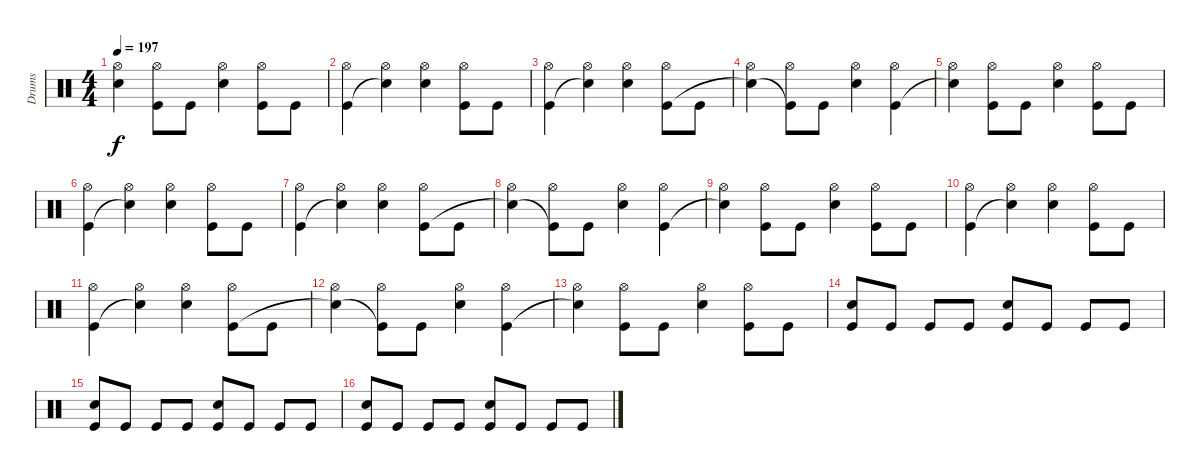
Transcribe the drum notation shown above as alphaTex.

\track ("Drums" "Drums") {instrument percussion}
\staff {score}
\articulation defaults
\ts (4 4)
\tempo 197
\clef neutral
\ks c
("Hi-Hat (open)" "Snare (hit)"{t}).4{dy f} ("Hi-Hat (open)" "Kick (hit)").8 "Kick (hit)".8 ("Hi-Hat (open)" "Snare (hit) 2").4 ("Hi-Hat (open)" "Kick (hit)").8 "Kick (hit)".8 |
("Hi-Hat (open)" "Kick (hit)").4 ("Hi-Hat (open)" "Snare (hit)"{t}).4 ("Hi-Hat (open)" "Snare (hit) 2").4 ("Hi-Hat (open)" "Kick (hit)").8 "Kick (hit)".8 |
("Hi-Hat (open)" "Kick (hit)").4 ("Hi-Hat (open)" "Snare (hit)"{t}).4 ("Hi-Hat (open)" "Snare (hit) 2").4 ("Hi-Hat (open)" "Kick (hit)").8 "Kick (hit)".8 |
("Hi-Hat (open)" "Snare (hit)"{t}).4 ("Hi-Hat (open)" "Kick (hit)"{t}).8 "Kick (hit)".8 ("Hi-Hat (open)" "Snare (hit) 2").4 ("Hi-Hat (open)" "Kick (hit)").4 |
("Hi-Hat (open)" "Snare (hit)"{t}).4 ("Hi-Hat (open)" "Kick (hit)").8 "Kick (hit)".8 ("Hi-Hat (open)" "Snare (hit) 2").4 ("Hi-Hat (open)" "Kick (hit)").8 "Kick (hit)".8 |
("Hi-Hat (open)" "Kick (hit)").4 ("Hi-Hat (open)" "Snare (hit)"{t}).4 ("Hi-Hat (open)" "Snare (hit) 2").4 ("Hi-Hat (open)" "Kick (hit)").8 "Kick (hit)".8 |
("Hi-Hat (open)" "Kick (hit)").4 ("Hi-Hat (open)" "Snare (hit)"{t}).4 ("Hi-Hat (open)" "Snare (hit) 2").4 ("Hi-Hat (open)" "Kick (hit)").8 "Kick (hit)".8 |
("Hi-Hat (open)" "Snare (hit)"{t}).4 ("Hi-Hat (open)" "Kick (hit)"{t}).8 "Kick (hit)".8 ("Hi-Hat (open)" "Snare (hit) 2").4 ("Hi-Hat (open)" "Kick (hit)").4 |
("Hi-Hat (open)" "Snare (hit)"{t}).4 ("Hi-Hat (open)" "Kick (hit)").8 "Kick (hit)".8 ("Hi-Hat (open)" "Snare (hit) 2").4 ("Hi-Hat (open)" "Kick (hit)").8 "Kick (hit)".8 |
("Hi-Hat (open)" "Kick (hit)").4 ("Hi-Hat (open)" "Snare (hit)"{t}).4 ("Hi-Hat (open)" "Snare (hit) 2").4 ("Hi-Hat (open)" "Kick (hit)").8 "Kick (hit)".8 |
("Hi-Hat (open)" "Kick (hit)").4 ("Hi-Hat (open)" "Snare (hit)"{t}).4 ("Hi-Hat (open)" "Snare (hit) 2").4 ("Hi-Hat (open)" "Kick (hit)").8 "Kick (hit)".8 |
("Hi-Hat (open)" "Snare (hit)"{t}).4 ("Hi-Hat (open)" "Kick (hit)"{t}).8 "Kick (hit)".8 ("Hi-Hat (open)" "Snare (hit) 2").4 ("Hi-Hat (open)" "Kick (hit)").4 |
("Hi-Hat (open)" "Snare (hit)"{t}).4 ("Hi-Hat (open)" "Kick (hit)").8 "Kick (hit)".8 ("Hi-Hat (open)" "Snare (hit) 2").4 ("Hi-Hat (open)" "Kick (hit)").8 "Kick (hit)".8 |
("Snare (hit) 2" "Kick (hit)").8 "Kick (hit)".8 "Kick (hit)".8 "Kick (hit)".8 ("Snare (hit) 2" "Kick (hit)").8 "Kick (hit)".8 "Kick (hit)".8 "Kick (hit)".8 |
("Snare (hit) 2" "Kick (hit)").8 "Kick (hit)".8 "Kick (hit)".8 "Kick (hit)".8 ("Snare (hit) 2" "Kick (hit)").8 "Kick (hit)".8 "Kick (hit)".8 "Kick (hit)".8 |
("Snare (hit) 2" "Kick (hit)").8 "Kick (hit)".8 "Kick (hit)".8 "Kick (hit)".8 ("Snare (hit) 2" "Kick (hit)").8 "Kick (hit)".8 "Kick (hit)".8 "Kick (hit)".8
